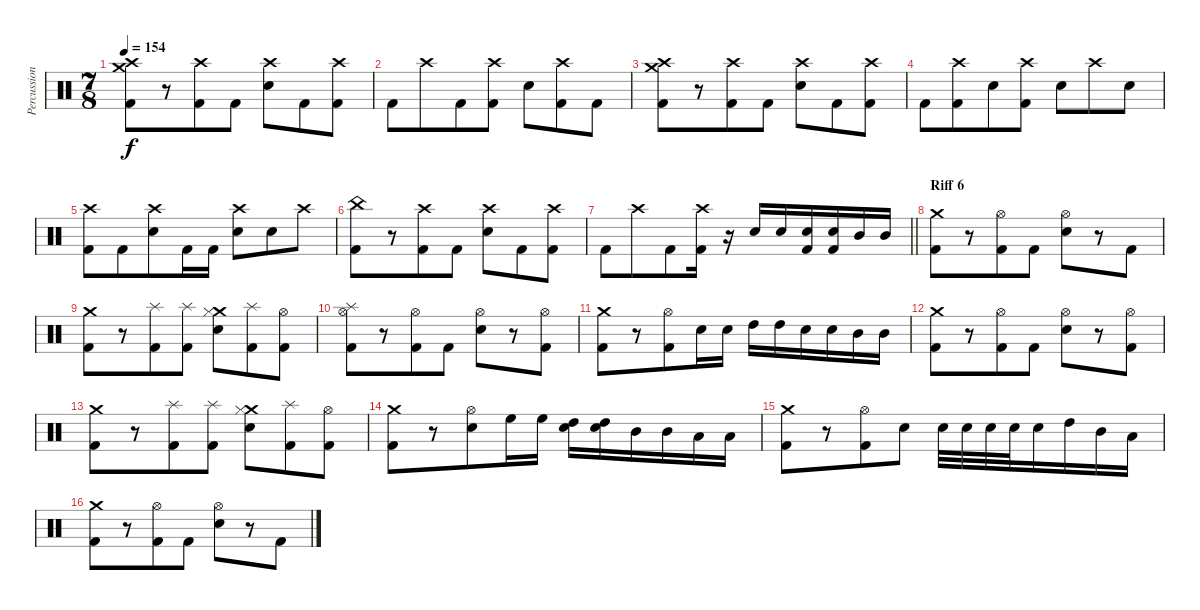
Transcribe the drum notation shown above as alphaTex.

\track ("Percussions" "Percussion") {instrument percussion}
\staff {score}
\articulation defaults
\ts (7 8)
\tempo 154
\clef neutral
\ks c
("Crash high (hit)" "Crash medium (hit)" "Kick (hit) 2").8{dy f} r.8 ("Crash high (hit)" "Kick (hit) 2").8 "Kick (hit) 2".8 ("Crash high (hit)" "Electric Snare (hit)").8 "Kick (hit) 2".8 ("Crash high (hit)" "Kick (hit) 2").8 |
"Kick (hit) 2".8 "Crash high (hit)".8 "Kick (hit) 2".8 ("Crash high (hit)" "Kick (hit) 2").8 "Electric Snare (hit)".8 ("Crash high (hit)" "Kick (hit) 2").8 "Kick (hit) 2".8 |
("Crash high (hit)" "Crash medium (hit)" "Kick (hit) 2").8 r.8 ("Crash high (hit)" "Kick (hit) 2").8 "Kick (hit) 2".8 ("Crash high (hit)" "Electric Snare (hit)").8 "Kick (hit) 2".8 ("Crash high (hit)" "Kick (hit) 2").8 |
"Kick (hit) 2".8 ("Crash high (hit)" "Kick (hit) 2").8 "Electric Snare (hit)".8 ("Crash high (hit)" "Kick (hit) 2").8 "Electric Snare (hit)".8 "Crash high (hit)".8 "Electric Snare (hit)".8 |
("Crash high (hit)" "Kick (hit) 2").8 "Kick (hit) 2".8 ("Crash high (hit)" "Electric Snare (hit)").8 "Kick (hit) 2".16 "Kick (hit) 2".16 ("Crash high (hit)" "Electric Snare (hit)").8 "Electric Snare (hit)".8 "Crash high (hit)".8 |
("China (hit)" "Kick (hit) 2").8 r.8 ("Crash high (hit)" "Kick (hit) 2").8 "Kick (hit) 2".8 ("Crash high (hit)" "Electric Snare (hit)").8 "Kick (hit) 2".8 ("Crash high (hit)" "Kick (hit) 2").8 |
\barLineRight lightlight "Kick (hit) 2".8 "Crash high (hit)".8 "Kick (hit) 2".8
("Crash high (hit)" "Kick (hit) 2").16 r.16 "Electric Snare (hit)".16 "Electric Snare (hit)".16 ("Electric Snare (hit)" "Kick (hit) 2").16 ("Electric Snare (hit)" "Kick (hit) 2").16 "Mid Tom (hit)".16 "Mid Tom (hit)".16 |
\section ("" "Riff 6")
("Crash medium (hit)" "Kick (hit) 2").8 r.8 ("Hi-Hat (open)" "Kick (hit) 2").8 "Kick (hit) 2".8 ("Hi-Hat (open)" "Electric Snare (hit)").8 r.8 "Kick (hit) 2".8 |
("Crash medium (hit)" "Kick (hit) 2").8 r.8 ("Splash (hit)" "Kick (hit) 2").8 ("Splash (hit)" "Kick (hit) 2").8 ("Crash medium (hit)" "Hi-Hat (closed)" "Electric Snare (hit)").8 ("Splash (hit)" "Kick (hit) 2").8 ("Hi-Hat (open)" "Kick (hit) 2").8 |
("Splash (hit)" "Hi-Hat (open)" "Kick (hit) 2").8 r.8 ("Hi-Hat (open)" "Kick (hit) 2").8 "Kick (hit) 2".8 ("Hi-Hat (open)" "Electric Snare (hit)").8 r.8 ("Hi-Hat (open)" "Kick (hit) 2").8 |
("Crash medium (hit)" "Kick (hit) 2").8 r.8 ("Hi-Hat (open)" "Kick (hit) 2").8 "Electric Snare (hit)".16 "Electric Snare (hit)".16 "High Tom (hit)".16 "High Tom (hit)".16 "Electric Snare (hit)".16 "Electric Snare (hit)".16 "Mid Tom (hit)".16 "Mid Tom (hit)".16 |
("Crash medium (hit)" "Kick (hit) 2").8 r.8 ("Hi-Hat (open)" "Kick (hit) 2").8 "Kick (hit) 2".8 ("Hi-Hat (open)" "Electric Snare (hit)").8 r.8 ("Hi-Hat (open)" "Kick (hit) 2").8 |
("Crash medium (hit)" "Kick (hit) 2").8 r.8 ("Splash (hit)" "Kick (hit) 2").8 ("Splash (hit)" "Kick (hit) 2").8 ("Crash medium (hit)" "Hi-Hat (closed)" "Electric Snare (hit)").8 ("Splash (hit)" "Kick (hit) 2").8 ("Hi-Hat (open)" "Kick (hit) 2").8 |
("Crash medium (hit)" "Kick (hit) 2").8 r.8 ("Hi-Hat (open)" "Electric Snare (hit)").8 "High Floor Tom (hit)".16 "High Floor Tom (hit)".16 ("Electric Snare (hit)" "High Tom (hit)").16 ("Electric Snare (hit)" "High Tom (hit)").16 "Mid Tom (hit)".16 "Mid Tom (hit)".16 "Low Tom (hit)".16 "Low Tom (hit)".16 |
("Crash medium (hit)" "Kick (hit) 2").8 r.8 ("Hi-Hat (open)" "Kick (hit) 2").8 "Electric Snare (hit)".8 "Electric Snare (hit)".32 "Electric Snare (hit)".32 "Electric Snare (hit)".32 "Electric Snare (hit)".32 "Electric Snare (hit)".16 "High Tom (hit)".16 "Mid Tom (hit)".16 "Low Tom (hit)".16 |
("Crash medium (hit)" "Kick (hit) 2").8 r.8 ("Hi-Hat (open)" "Kick (hit) 2").8 "Kick (hit) 2".8 ("Hi-Hat (open)" "Electric Snare (hit)").8 r.8 "Kick (hit) 2".8
